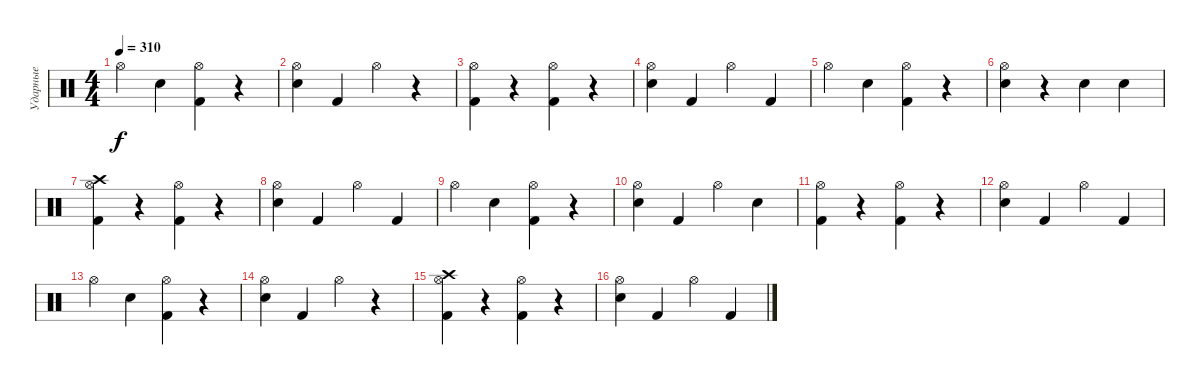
\track ("Ударные" "Ударные") {instrument percussion}
\staff {score}
\articulation defaults
\ts (4 4)
\tempo 310
\clef neutral
\ks c "Hi-Hat (open)".4{dy f} "Electric Snare (hit)".4
("Hi-Hat (open)" "Kick (hit) 2").4 r.4 |
("Hi-Hat (open)" "Electric Snare (hit)").4 "Kick (hit) 2".4 "Hi-Hat (open)".4 r.4 |
("Hi-Hat (open)" "Kick (hit) 2").4 r.4 ("Hi-Hat (open)" "Kick (hit) 2").4 r.4 |
("Hi-Hat (open)" "Electric Snare (hit)").4 "Kick (hit) 2".4 "Hi-Hat (open)".4 "Kick (hit) 2".4 |
"Hi-Hat (open)".4 "Electric Snare (hit)".4 ("Hi-Hat (open)" "Kick (hit) 2").4 r.4 |
("Hi-Hat (open)" "Electric Snare (hit)").4 r.4 "Electric Snare (hit)".4 "Electric Snare (hit)".4 |
("Crash high (hit)" "Hi-Hat (open)" "Kick (hit) 2").4 r.4 ("Hi-Hat (open)" "Kick (hit) 2").4 r.4 |
("Hi-Hat (open)" "Electric Snare (hit)").4 "Kick (hit) 2".4 "Hi-Hat (open)".4 "Kick (hit) 2".4 |
"Hi-Hat (open)".4 "Electric Snare (hit)".4 ("Hi-Hat (open)" "Kick (hit) 2").4 r.4 |
("Hi-Hat (open)" "Electric Snare (hit)").4 "Kick (hit) 2".4 "Hi-Hat (open)".4 "Electric Snare (hit)".4 |
("Hi-Hat (open)" "Kick (hit) 2").4 r.4 ("Hi-Hat (open)" "Kick (hit) 2").4 r.4 |
("Hi-Hat (open)" "Electric Snare (hit)").4 "Kick (hit) 2".4 "Hi-Hat (open)".4 "Kick (hit) 2".4 |
"Hi-Hat (open)".4 "Electric Snare (hit)".4 ("Hi-Hat (open)" "Kick (hit) 2").4 r.4 |
("Hi-Hat (open)" "Electric Snare (hit)").4 "Kick (hit) 2".4 "Hi-Hat (open)".4 r.4 |
("Crash high (hit)" "Hi-Hat (open)" "Kick (hit) 2").4 r.4 ("Hi-Hat (open)" "Kick (hit) 2").4 r.4 |
("Hi-Hat (open)" "Electric Snare (hit)").4 "Kick (hit) 2".4 "Hi-Hat (open)".4 "Kick (hit) 2".4
